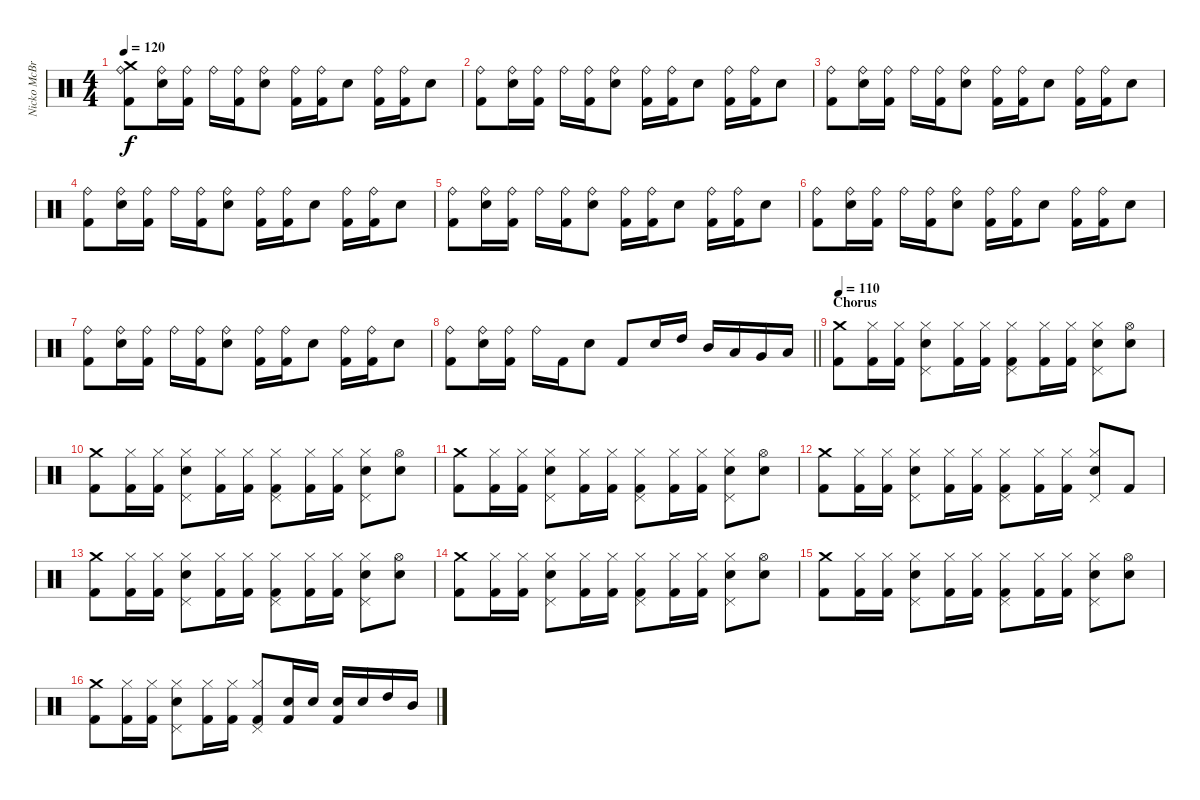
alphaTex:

\track ("Nicko McBrain" "Nicko McBr") {instrument percussion}
\staff {score}
\articulation defaults
\ts (4 4)
\tempo 120
\clef neutral
\ks c
("Crash medium (hit)" "Kick (hit) 2" "Ride (bell)").8{dy f} ("Snare (hit) 2" "Ride (bell)").16 ("Kick (hit) 2" "Ride (bell)").16 "Ride (bell)".16 ("Kick (hit) 2" "Ride (bell)").16 ("Snare (hit) 2" "Ride (bell)").8 ("Kick (hit) 2" "Ride (bell)").16 ("Kick (hit) 2" "Ride (bell)").16 "Snare (hit) 2".8 ("Kick (hit) 2" "Ride (bell)").16 ("Kick (hit) 2" "Ride (bell)").16 "Snare (hit) 2".8 |
("Kick (hit) 2" "Ride (bell)").8 ("Snare (hit) 2" "Ride (bell)").16 ("Kick (hit) 2" "Ride (bell)").16 "Ride (bell)".16 ("Kick (hit) 2" "Ride (bell)").16 ("Snare (hit) 2" "Ride (bell)").8 ("Kick (hit) 2" "Ride (bell)").16 ("Kick (hit) 2" "Ride (bell)").16 "Snare (hit) 2".8 ("Kick (hit) 2" "Ride (bell)").16 ("Kick (hit) 2" "Ride (bell)").16 "Snare (hit) 2".8 |
("Kick (hit) 2" "Ride (bell)").8 ("Snare (hit) 2" "Ride (bell)").16 ("Kick (hit) 2" "Ride (bell)").16 "Ride (bell)".16 ("Kick (hit) 2" "Ride (bell)").16 ("Snare (hit) 2" "Ride (bell)").8 ("Kick (hit) 2" "Ride (bell)").16 ("Kick (hit) 2" "Ride (bell)").16 "Snare (hit) 2".8 ("Kick (hit) 2" "Ride (bell)").16 ("Kick (hit) 2" "Ride (bell)").16 "Snare (hit) 2".8 |
("Kick (hit) 2" "Ride (bell)").8 ("Snare (hit) 2" "Ride (bell)").16 ("Kick (hit) 2" "Ride (bell)").16 "Ride (bell)".16 ("Kick (hit) 2" "Ride (bell)").16 ("Snare (hit) 2" "Ride (bell)").8 ("Kick (hit) 2" "Ride (bell)").16 ("Kick (hit) 2" "Ride (bell)").16 "Snare (hit) 2".8 ("Kick (hit) 2" "Ride (bell)").16 ("Kick (hit) 2" "Ride (bell)").16 "Snare (hit) 2".8 |
("Kick (hit) 2" "Ride (bell)").8 ("Snare (hit) 2" "Ride (bell)").16 ("Kick (hit) 2" "Ride (bell)").16 "Ride (bell)".16 ("Kick (hit) 2" "Ride (bell)").16 ("Snare (hit) 2" "Ride (bell)").8 ("Kick (hit) 2" "Ride (bell)").16 ("Kick (hit) 2" "Ride (bell)").16 "Snare (hit) 2".8 ("Kick (hit) 2" "Ride (bell)").16 ("Kick (hit) 2" "Ride (bell)").16 "Snare (hit) 2".8 |
("Kick (hit) 2" "Ride (bell)").8 ("Snare (hit) 2" "Ride (bell)").16 ("Kick (hit) 2" "Ride (bell)").16 "Ride (bell)".16 ("Kick (hit) 2" "Ride (bell)").16 ("Snare (hit) 2" "Ride (bell)").8 ("Kick (hit) 2" "Ride (bell)").16 ("Kick (hit) 2" "Ride (bell)").16 "Snare (hit) 2".8 ("Kick (hit) 2" "Ride (bell)").16 ("Kick (hit) 2" "Ride (bell)").16 "Snare (hit) 2".8 |
("Kick (hit) 2" "Ride (bell)").8 ("Snare (hit) 2" "Ride (bell)").16 ("Kick (hit) 2" "Ride (bell)").16 "Ride (bell)".16 ("Kick (hit) 2" "Ride (bell)").16 ("Snare (hit) 2" "Ride (bell)").8 ("Kick (hit) 2" "Ride (bell)").16 ("Kick (hit) 2" "Ride (bell)").16 "Snare (hit) 2".8 ("Kick (hit) 2" "Ride (bell)").16 ("Kick (hit) 2" "Ride (bell)").16 "Snare (hit) 2".8 |
\barLineRight lightlight
("Kick (hit) 2" "Ride (bell)").8 ("Snare (hit) 2" "Ride (bell)").16 ("Kick (hit) 2" "Ride (bell)").16 "Ride (bell)".16 "Kick (hit) 2".16 "Snare (hit) 2".8 "Kick (hit) 2".8 "Snare (hit) 2".16 "High Tom (hit)".16 "Mid Tom (hit)".16 "Low Tom (hit)".16 "Very Low Tom (hit)".16 "Low Floor Tom (hit)".16 |
\section ("" "Chorus")
\tempo 110
("Crash medium (hit)" "Kick (hit) 2").8 ("Kick (hit) 2" "Hi-Hat (closed)").16 ("Kick (hit) 2" "Hi-Hat (closed)").16 ("Snare (hit) 2" "Pedal Hi-Hat (hit)" "Hi-Hat (closed)").8 ("Kick (hit) 2" "Hi-Hat (closed)").16 ("Kick (hit) 2" "Hi-Hat (closed)").16 ("Kick (hit) 2" "Pedal Hi-Hat (hit)" "Hi-Hat (closed)").8 ("Kick (hit) 2" "Hi-Hat (closed)").16 ("Kick (hit) 2" "Hi-Hat (closed)").16 ("Snare (hit) 2" "Pedal Hi-Hat (hit)" "Hi-Hat (closed)").8 ("Snare (hit) 2" "Hi-Hat (open)").8 |
("Crash medium (hit)" "Kick (hit) 2").8 ("Kick (hit) 2" "Hi-Hat (closed)").16 ("Kick (hit) 2" "Hi-Hat (closed)").16 ("Snare (hit) 2" "Pedal Hi-Hat (hit)" "Hi-Hat (closed)").8 ("Kick (hit) 2" "Hi-Hat (closed)").16 ("Kick (hit) 2" "Hi-Hat (closed)").16 ("Kick (hit) 2" "Pedal Hi-Hat (hit)" "Hi-Hat (closed)").8 ("Kick (hit) 2" "Hi-Hat (closed)").16 ("Kick (hit) 2" "Hi-Hat (closed)").16 ("Snare (hit) 2" "Pedal Hi-Hat (hit)" "Hi-Hat (closed)").8 ("Snare (hit) 2" "Hi-Hat (open)").8 |
("Crash medium (hit)" "Kick (hit) 2").8 ("Kick (hit) 2" "Hi-Hat (closed)").16 ("Kick (hit) 2" "Hi-Hat (closed)").16 ("Snare (hit) 2" "Pedal Hi-Hat (hit)" "Hi-Hat (closed)").8 ("Kick (hit) 2" "Hi-Hat (closed)").16 ("Kick (hit) 2" "Hi-Hat (closed)").16 ("Kick (hit) 2" "Pedal Hi-Hat (hit)" "Hi-Hat (closed)").8 ("Kick (hit) 2" "Hi-Hat (closed)").16 ("Kick (hit) 2" "Hi-Hat (closed)").16 ("Snare (hit) 2" "Pedal Hi-Hat (hit)" "Hi-Hat (closed)").8 ("Snare (hit) 2" "Hi-Hat (open)").8 |
("Crash medium (hit)" "Kick (hit) 2").8 ("Kick (hit) 2" "Hi-Hat (closed)").16 ("Kick (hit) 2" "Hi-Hat (closed)").16 ("Snare (hit) 2" "Pedal Hi-Hat (hit)" "Hi-Hat (closed)").8 ("Kick (hit) 2" "Hi-Hat (closed)").16 ("Kick (hit) 2" "Hi-Hat (closed)").16 ("Kick (hit) 2" "Pedal Hi-Hat (hit)" "Hi-Hat (closed)").8 ("Kick (hit) 2" "Hi-Hat (closed)").16 ("Kick (hit) 2" "Hi-Hat (closed)").16 ("Snare (hit) 2" "Pedal Hi-Hat (hit)" "Hi-Hat (closed)").8 "Kick (hit) 2".8 |
("Crash medium (hit)" "Kick (hit) 2").8 ("Kick (hit) 2" "Hi-Hat (closed)").16 ("Kick (hit) 2" "Hi-Hat (closed)").16 ("Snare (hit) 2" "Pedal Hi-Hat (hit)" "Hi-Hat (closed)").8 ("Kick (hit) 2" "Hi-Hat (closed)").16 ("Kick (hit) 2" "Hi-Hat (closed)").16 ("Kick (hit) 2" "Pedal Hi-Hat (hit)" "Hi-Hat (closed)").8 ("Kick (hit) 2" "Hi-Hat (closed)").16 ("Kick (hit) 2" "Hi-Hat (closed)").16 ("Snare (hit) 2" "Pedal Hi-Hat (hit)" "Hi-Hat (closed)").8 ("Snare (hit) 2" "Hi-Hat (open)").8 |
("Crash medium (hit)" "Kick (hit) 2").8 ("Kick (hit) 2" "Hi-Hat (closed)").16 ("Kick (hit) 2" "Hi-Hat (closed)").16 ("Snare (hit) 2" "Pedal Hi-Hat (hit)" "Hi-Hat (closed)").8 ("Kick (hit) 2" "Hi-Hat (closed)").16 ("Kick (hit) 2" "Hi-Hat (closed)").16 ("Kick (hit) 2" "Pedal Hi-Hat (hit)" "Hi-Hat (closed)").8 ("Kick (hit) 2" "Hi-Hat (closed)").16 ("Kick (hit) 2" "Hi-Hat (closed)").16 ("Snare (hit) 2" "Pedal Hi-Hat (hit)" "Hi-Hat (closed)").8 ("Snare (hit) 2" "Hi-Hat (open)").8 |
("Crash medium (hit)" "Kick (hit) 2").8 ("Kick (hit) 2" "Hi-Hat (closed)").16 ("Kick (hit) 2" "Hi-Hat (closed)").16 ("Snare (hit) 2" "Pedal Hi-Hat (hit)" "Hi-Hat (closed)").8 ("Kick (hit) 2" "Hi-Hat (closed)").16 ("Kick (hit) 2" "Hi-Hat (closed)").16 ("Kick (hit) 2" "Pedal Hi-Hat (hit)" "Hi-Hat (closed)").8 ("Kick (hit) 2" "Hi-Hat (closed)").16 ("Kick (hit) 2" "Hi-Hat (closed)").16 ("Snare (hit) 2" "Pedal Hi-Hat (hit)" "Hi-Hat (closed)").8 ("Snare (hit) 2" "Hi-Hat (open)").8 |
("Crash medium (hit)" "Kick (hit) 2").8 ("Kick (hit) 2" "Hi-Hat (closed)").16 ("Kick (hit) 2" "Hi-Hat (closed)").16 ("Snare (hit) 2" "Pedal Hi-Hat (hit)" "Hi-Hat (closed)").8 ("Kick (hit) 2" "Hi-Hat (closed)").16 ("Kick (hit) 2" "Hi-Hat (closed)").16 ("Kick (hit) 2" "Pedal Hi-Hat (hit)" "Hi-Hat (closed)").8 ("Snare (hit) 2" "Kick (hit) 2").16 "Snare (hit) 2".16 ("Snare (hit) 2" "Kick (hit) 2").16 "Snare (hit) 2".16 "High Tom (hit)".16 "Mid Tom (hit)".16
